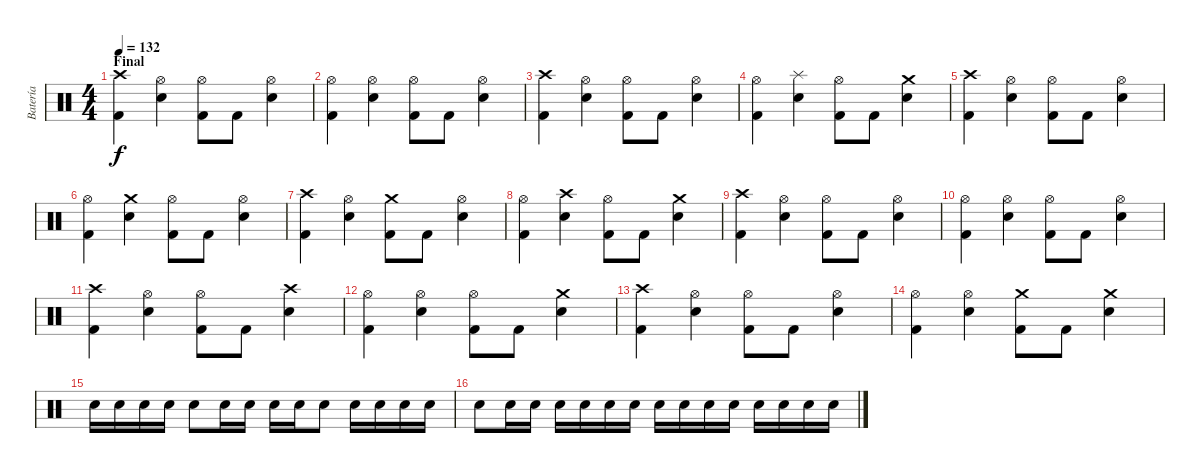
\track ("Batería" "Batería") {instrument percussion}
\staff {score}
\articulation defaults
\ts (4 4)
\section ("" "Final")
\tempo 132
\clef neutral
\ks c
("Crash high (hit)" "Kick (hit) 2").4{dy f} ("Hi-Hat (open)" "Electric Snare (hit)").4 ("Kick (hit) 2" "Hi-Hat (open)").8 "Kick (hit) 2".8 ("Hi-Hat (open)" "Electric Snare (hit)").4 |
("Hi-Hat (open)" "Kick (hit) 2").4 ("Hi-Hat (open)" "Electric Snare (hit)").4 ("Kick (hit) 2" "Hi-Hat (open)").8 "Kick (hit) 2".8 ("Hi-Hat (open)" "Electric Snare (hit)").4 |
("Crash high (hit)" "Kick (hit) 2").4 ("Hi-Hat (open)" "Electric Snare (hit)").4 ("Kick (hit) 2" "Hi-Hat (open)").8 "Kick (hit) 2".8 ("Hi-Hat (open)" "Electric Snare (hit)").4 |
("Hi-Hat (open)" "Kick (hit) 2").4 ("Splash (hit)" "Electric Snare (hit)").4 ("Kick (hit) 2" "Hi-Hat (open)").8 "Kick (hit) 2".8 ("Crash medium (hit)" "Electric Snare (hit)").4 |
("Crash high (hit)" "Kick (hit) 2").4 ("Hi-Hat (open)" "Electric Snare (hit)").4 ("Kick (hit) 2" "Hi-Hat (open)").8 "Kick (hit) 2".8 ("Hi-Hat (open)" "Electric Snare (hit)").4 |
("Hi-Hat (open)" "Kick (hit) 2").4 ("Crash medium (hit)" "Electric Snare (hit)").4 ("Kick (hit) 2" "Hi-Hat (open)").8 "Kick (hit) 2".8 ("Hi-Hat (open)" "Electric Snare (hit)").4 |
("Crash high (hit)" "Kick (hit) 2").4 ("Hi-Hat (open)" "Electric Snare (hit)").4 ("Kick (hit) 2" "Crash medium (hit)").8 "Kick (hit) 2".8 ("Hi-Hat (open)" "Electric Snare (hit)").4 |
("Hi-Hat (open)" "Kick (hit) 2").4 ("Crash high (hit)" "Electric Snare (hit)").4 ("Kick (hit) 2" "Hi-Hat (open)").8 "Kick (hit) 2".8 ("Crash medium (hit)" "Electric Snare (hit)").4 |
("Crash high (hit)" "Kick (hit) 2").4 ("Hi-Hat (open)" "Electric Snare (hit)").4 ("Kick (hit) 2" "Hi-Hat (open)").8 "Kick (hit) 2".8 ("Hi-Hat (open)" "Electric Snare (hit)").4 |
("Hi-Hat (open)" "Kick (hit) 2").4 ("Hi-Hat (open)" "Electric Snare (hit)").4 ("Kick (hit) 2" "Hi-Hat (open)").8 "Kick (hit) 2".8 ("Hi-Hat (open)" "Electric Snare (hit)").4 |
("Crash high (hit)" "Kick (hit) 2").4 ("Hi-Hat (open)" "Electric Snare (hit)").4 ("Kick (hit) 2" "Hi-Hat (open)").8 "Kick (hit) 2".8 ("Crash high (hit)" "Electric Snare (hit)").4 |
("Hi-Hat (open)" "Kick (hit) 2").4 ("Hi-Hat (open)" "Electric Snare (hit)").4 ("Kick (hit) 2" "Hi-Hat (open)").8 "Kick (hit) 2".8 ("Crash medium (hit)" "Electric Snare (hit)").4 |
("Crash high (hit)" "Kick (hit) 2").4 ("Hi-Hat (open)" "Electric Snare (hit)").4 ("Kick (hit) 2" "Hi-Hat (open)").8 "Kick (hit) 2".8 ("Hi-Hat (open)" "Electric Snare (hit)").4 |
("Hi-Hat (open)" "Kick (hit) 2").4 ("Hi-Hat (open)" "Electric Snare (hit)").4 ("Kick (hit) 2" "Crash medium (hit)").8 "Kick (hit) 2".8 ("Crash medium (hit)" "Electric Snare (hit)").4 |
"Electric Snare (hit)".16 "Electric Snare (hit)".16 "Electric Snare (hit)".16 "Electric Snare (hit)".16 "Electric Snare (hit)".8 "Electric Snare (hit)".16 "Electric Snare (hit)".16 "Electric Snare (hit)".16 "Electric Snare (hit)".16 "Electric Snare (hit)".8 "Electric Snare (hit)".16 "Electric Snare (hit)".16 "Electric Snare (hit)".16 "Electric Snare (hit)".16 |
"Electric Snare (hit)".8 "Electric Snare (hit)".16 "Electric Snare (hit)".16 "Electric Snare (hit)".16 "Electric Snare (hit)".16 "Electric Snare (hit)".16 "Electric Snare (hit)".16 "Electric Snare (hit)".16 "Electric Snare (hit)".16 "Electric Snare (hit)".16 "Electric Snare (hit)".16 "Electric Snare (hit)".16 "Electric Snare (hit)".16 "Electric Snare (hit)".16 "Electric Snare (hit)".16
